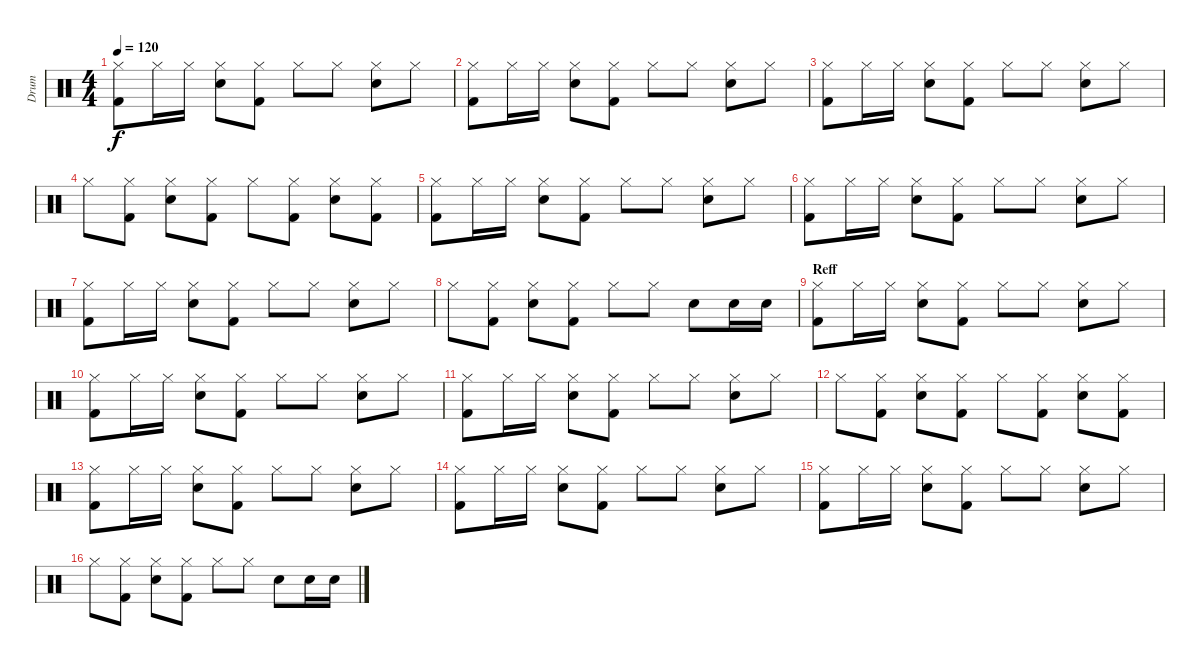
\track ("Drum" "Drum") {instrument percussion}
\staff {score}
\articulation defaults
\ts (4 4)
\tempo 120
\clef neutral
\ks c
("Kick (hit) 2" "Hi-Hat (closed)").8{dy f} "Hi-Hat (closed)".16 "Hi-Hat (closed)".16 ("Snare (hit) 2" "Hi-Hat (closed)").8 ("Kick (hit) 2" "Hi-Hat (closed)").8 "Hi-Hat (closed)".8 "Hi-Hat (closed)".8 ("Snare (hit) 2" "Hi-Hat (closed)").8 "Hi-Hat (closed)".8 |
("Kick (hit) 2" "Hi-Hat (closed)").8 "Hi-Hat (closed)".16 "Hi-Hat (closed)".16 ("Snare (hit) 2" "Hi-Hat (closed)").8 ("Kick (hit) 2" "Hi-Hat (closed)").8 "Hi-Hat (closed)".8 "Hi-Hat (closed)".8 ("Snare (hit) 2" "Hi-Hat (closed)").8 "Hi-Hat (closed)".8 |
("Kick (hit) 2" "Hi-Hat (closed)").8 "Hi-Hat (closed)".16 "Hi-Hat (closed)".16 ("Snare (hit) 2" "Hi-Hat (closed)").8 ("Kick (hit) 2" "Hi-Hat (closed)").8 "Hi-Hat (closed)".8 "Hi-Hat (closed)".8 ("Snare (hit) 2" "Hi-Hat (closed)").8 "Hi-Hat (closed)".8 |
"Hi-Hat (closed)".8 ("Kick (hit) 2" "Hi-Hat (closed)").8 ("Snare (hit) 2" "Hi-Hat (closed)").8 ("Kick (hit) 2" "Hi-Hat (closed)").8 "Hi-Hat (closed)".8 ("Kick (hit) 2" "Hi-Hat (closed)").8 ("Snare (hit) 2" "Hi-Hat (closed)").8 ("Kick (hit) 2" "Hi-Hat (closed)").8 |
("Kick (hit) 2" "Hi-Hat (closed)").8 "Hi-Hat (closed)".16 "Hi-Hat (closed)".16 ("Snare (hit) 2" "Hi-Hat (closed)").8 ("Kick (hit) 2" "Hi-Hat (closed)").8 "Hi-Hat (closed)".8 "Hi-Hat (closed)".8 ("Snare (hit) 2" "Hi-Hat (closed)").8 "Hi-Hat (closed)".8 |
("Kick (hit) 2" "Hi-Hat (closed)").8 "Hi-Hat (closed)".16 "Hi-Hat (closed)".16 ("Snare (hit) 2" "Hi-Hat (closed)").8 ("Kick (hit) 2" "Hi-Hat (closed)").8 "Hi-Hat (closed)".8 "Hi-Hat (closed)".8 ("Snare (hit) 2" "Hi-Hat (closed)").8 "Hi-Hat (closed)".8 |
("Kick (hit) 2" "Hi-Hat (closed)").8 "Hi-Hat (closed)".16 "Hi-Hat (closed)".16 ("Snare (hit) 2" "Hi-Hat (closed)").8 ("Kick (hit) 2" "Hi-Hat (closed)").8 "Hi-Hat (closed)".8 "Hi-Hat (closed)".8 ("Snare (hit) 2" "Hi-Hat (closed)").8 "Hi-Hat (closed)".8 |
"Hi-Hat (closed)".8 ("Kick (hit) 2" "Hi-Hat (closed)").8 ("Snare (hit) 2" "Hi-Hat (closed)").8 ("Kick (hit) 2" "Hi-Hat (closed)").8 "Hi-Hat (closed)".8 "Hi-Hat (closed)".8 "Snare (hit) 2".8 "Snare (hit) 2".16 "Snare (hit) 2".16 |
\section ("" "Reff")
("Kick (hit) 2" "Hi-Hat (closed)").8 "Hi-Hat (closed)".16 "Hi-Hat (closed)".16 ("Snare (hit) 2" "Hi-Hat (closed)").8 ("Kick (hit) 2" "Hi-Hat (closed)").8 "Hi-Hat (closed)".8 "Hi-Hat (closed)".8 ("Snare (hit) 2" "Hi-Hat (closed)").8 "Hi-Hat (closed)".8 |
("Kick (hit) 2" "Hi-Hat (closed)").8 "Hi-Hat (closed)".16 "Hi-Hat (closed)".16 ("Snare (hit) 2" "Hi-Hat (closed)").8 ("Kick (hit) 2" "Hi-Hat (closed)").8 "Hi-Hat (closed)".8 "Hi-Hat (closed)".8 ("Snare (hit) 2" "Hi-Hat (closed)").8 "Hi-Hat (closed)".8 |
("Kick (hit) 2" "Hi-Hat (closed)").8 "Hi-Hat (closed)".16 "Hi-Hat (closed)".16 ("Snare (hit) 2" "Hi-Hat (closed)").8 ("Kick (hit) 2" "Hi-Hat (closed)").8 "Hi-Hat (closed)".8 "Hi-Hat (closed)".8 ("Snare (hit) 2" "Hi-Hat (closed)").8 "Hi-Hat (closed)".8 |
"Hi-Hat (closed)".8 ("Kick (hit) 2" "Hi-Hat (closed)").8 ("Snare (hit) 2" "Hi-Hat (closed)").8 ("Kick (hit) 2" "Hi-Hat (closed)").8 "Hi-Hat (closed)".8 ("Kick (hit) 2" "Hi-Hat (closed)").8 ("Snare (hit) 2" "Hi-Hat (closed)").8 ("Kick (hit) 2" "Hi-Hat (closed)").8 |
("Kick (hit) 2" "Hi-Hat (closed)").8 "Hi-Hat (closed)".16 "Hi-Hat (closed)".16 ("Snare (hit) 2" "Hi-Hat (closed)").8 ("Kick (hit) 2" "Hi-Hat (closed)").8 "Hi-Hat (closed)".8 "Hi-Hat (closed)".8 ("Snare (hit) 2" "Hi-Hat (closed)").8 "Hi-Hat (closed)".8 |
("Kick (hit) 2" "Hi-Hat (closed)").8 "Hi-Hat (closed)".16 "Hi-Hat (closed)".16 ("Snare (hit) 2" "Hi-Hat (closed)").8 ("Kick (hit) 2" "Hi-Hat (closed)").8 "Hi-Hat (closed)".8 "Hi-Hat (closed)".8 ("Snare (hit) 2" "Hi-Hat (closed)").8 "Hi-Hat (closed)".8 |
("Kick (hit) 2" "Hi-Hat (closed)").8 "Hi-Hat (closed)".16 "Hi-Hat (closed)".16 ("Snare (hit) 2" "Hi-Hat (closed)").8 ("Kick (hit) 2" "Hi-Hat (closed)").8 "Hi-Hat (closed)".8 "Hi-Hat (closed)".8 ("Snare (hit) 2" "Hi-Hat (closed)").8 "Hi-Hat (closed)".8 |
"Hi-Hat (closed)".8 ("Kick (hit) 2" "Hi-Hat (closed)").8 ("Snare (hit) 2" "Hi-Hat (closed)").8 ("Kick (hit) 2" "Hi-Hat (closed)").8 "Hi-Hat (closed)".8 "Hi-Hat (closed)".8 "Snare (hit) 2".8 "Snare (hit) 2".16 "Snare (hit) 2".16
